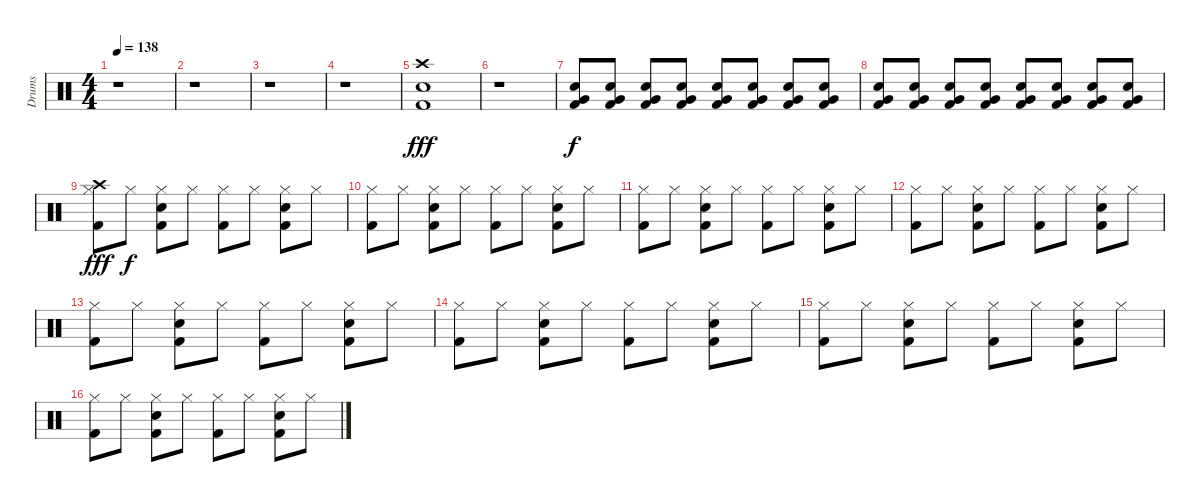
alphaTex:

\track ("Drums" "Drums") {instrument percussion}
\staff {score}
\articulation defaults
\ts (4 4)
\tempo 138
\clef neutral
\ks c
r.1{dy fff} |
r.1 |
r.1 |
r.1 |
("Crash high (hit)" "Electric Snare (hit)" "Kick (hit) 2").1 |
r.1 |
("Electric Snare (hit)" "Very Low Tom (hit)" "Kick (hit) 2").8{dy f volume 6} ("Electric Snare (hit)" "Very Low Tom (hit)" "Kick (hit) 2").8{volume 12} ("Electric Snare (hit)" "Very Low Tom (hit)" "Kick (hit) 2").8 ("Electric Snare (hit)" "Very Low Tom (hit)" "Kick (hit) 2").8 ("Electric Snare (hit)" "Very Low Tom (hit)" "Kick (hit) 2").8 ("Electric Snare (hit)" "Very Low Tom (hit)" "Kick (hit) 2").8 ("Electric Snare (hit)" "Very Low Tom (hit)" "Kick (hit) 2").8 ("Electric Snare (hit)" "Very Low Tom (hit)" "Kick (hit) 2").8 |
("Electric Snare (hit)" "Very Low Tom (hit)" "Kick (hit) 2").8 ("Electric Snare (hit)" "Very Low Tom (hit)" "Kick (hit) 2").8 ("Electric Snare (hit)" "Very Low Tom (hit)" "Kick (hit) 2").8 ("Electric Snare (hit)" "Very Low Tom (hit)" "Kick (hit) 2").8 ("Electric Snare (hit)" "Very Low Tom (hit)" "Kick (hit) 2").8 ("Electric Snare (hit)" "Very Low Tom (hit)" "Kick (hit) 2").8 ("Electric Snare (hit)" "Very Low Tom (hit)" "Kick (hit) 2").8 ("Electric Snare (hit)" "Very Low Tom (hit)" "Kick (hit) 2").8 |
("Crash high (hit)" "Hi-Hat (closed)" "Kick (hit) 2").8{dy fff} "Hi-Hat (closed)".8{dy f} ("Hi-Hat (closed)" "Electric Snare (hit)" "Kick (hit) 2").8 "Hi-Hat (closed)".8 ("Hi-Hat (closed)" "Kick (hit) 2").8 "Hi-Hat (closed)".8 ("Hi-Hat (closed)" "Electric Snare (hit)" "Kick (hit) 2").8 "Hi-Hat (closed)".8 |
("Hi-Hat (closed)" "Kick (hit) 2").8 "Hi-Hat (closed)".8 ("Hi-Hat (closed)" "Electric Snare (hit)" "Kick (hit) 2").8 "Hi-Hat (closed)".8 ("Hi-Hat (closed)" "Kick (hit) 2").8 "Hi-Hat (closed)".8 ("Hi-Hat (closed)" "Electric Snare (hit)" "Kick (hit) 2").8 "Hi-Hat (closed)".8 |
("Hi-Hat (closed)" "Kick (hit) 2").8 "Hi-Hat (closed)".8 ("Hi-Hat (closed)" "Electric Snare (hit)" "Kick (hit) 2").8 "Hi-Hat (closed)".8 ("Hi-Hat (closed)" "Kick (hit) 2").8 "Hi-Hat (closed)".8 ("Hi-Hat (closed)" "Electric Snare (hit)" "Kick (hit) 2").8 "Hi-Hat (closed)".8 |
("Hi-Hat (closed)" "Kick (hit) 2").8 "Hi-Hat (closed)".8 ("Hi-Hat (closed)" "Electric Snare (hit)" "Kick (hit) 2").8 "Hi-Hat (closed)".8 ("Hi-Hat (closed)" "Kick (hit) 2").8 "Hi-Hat (closed)".8 ("Hi-Hat (closed)" "Electric Snare (hit)" "Kick (hit) 2").8 "Hi-Hat (closed)".8 |
("Hi-Hat (closed)" "Kick (hit) 2").8 "Hi-Hat (closed)".8 ("Hi-Hat (closed)" "Electric Snare (hit)" "Kick (hit) 2").8 "Hi-Hat (closed)".8 ("Hi-Hat (closed)" "Kick (hit) 2").8 "Hi-Hat (closed)".8 ("Hi-Hat (closed)" "Electric Snare (hit)" "Kick (hit) 2").8 "Hi-Hat (closed)".8 |
("Hi-Hat (closed)" "Kick (hit) 2").8 "Hi-Hat (closed)".8 ("Hi-Hat (closed)" "Electric Snare (hit)" "Kick (hit) 2").8 "Hi-Hat (closed)".8 ("Hi-Hat (closed)" "Kick (hit) 2").8 "Hi-Hat (closed)".8 ("Hi-Hat (closed)" "Electric Snare (hit)" "Kick (hit) 2").8 "Hi-Hat (closed)".8 |
("Hi-Hat (closed)" "Kick (hit) 2").8 "Hi-Hat (closed)".8 ("Hi-Hat (closed)" "Electric Snare (hit)" "Kick (hit) 2").8 "Hi-Hat (closed)".8 ("Hi-Hat (closed)" "Kick (hit) 2").8 "Hi-Hat (closed)".8 ("Hi-Hat (closed)" "Electric Snare (hit)" "Kick (hit) 2").8 "Hi-Hat (closed)".8 |
("Hi-Hat (closed)" "Kick (hit) 2").8 "Hi-Hat (closed)".8 ("Hi-Hat (closed)" "Electric Snare (hit)" "Kick (hit) 2").8 "Hi-Hat (closed)".8 ("Hi-Hat (closed)" "Kick (hit) 2").8 "Hi-Hat (closed)".8 ("Hi-Hat (closed)" "Electric Snare (hit)" "Kick (hit) 2").8 "Hi-Hat (closed)".8
